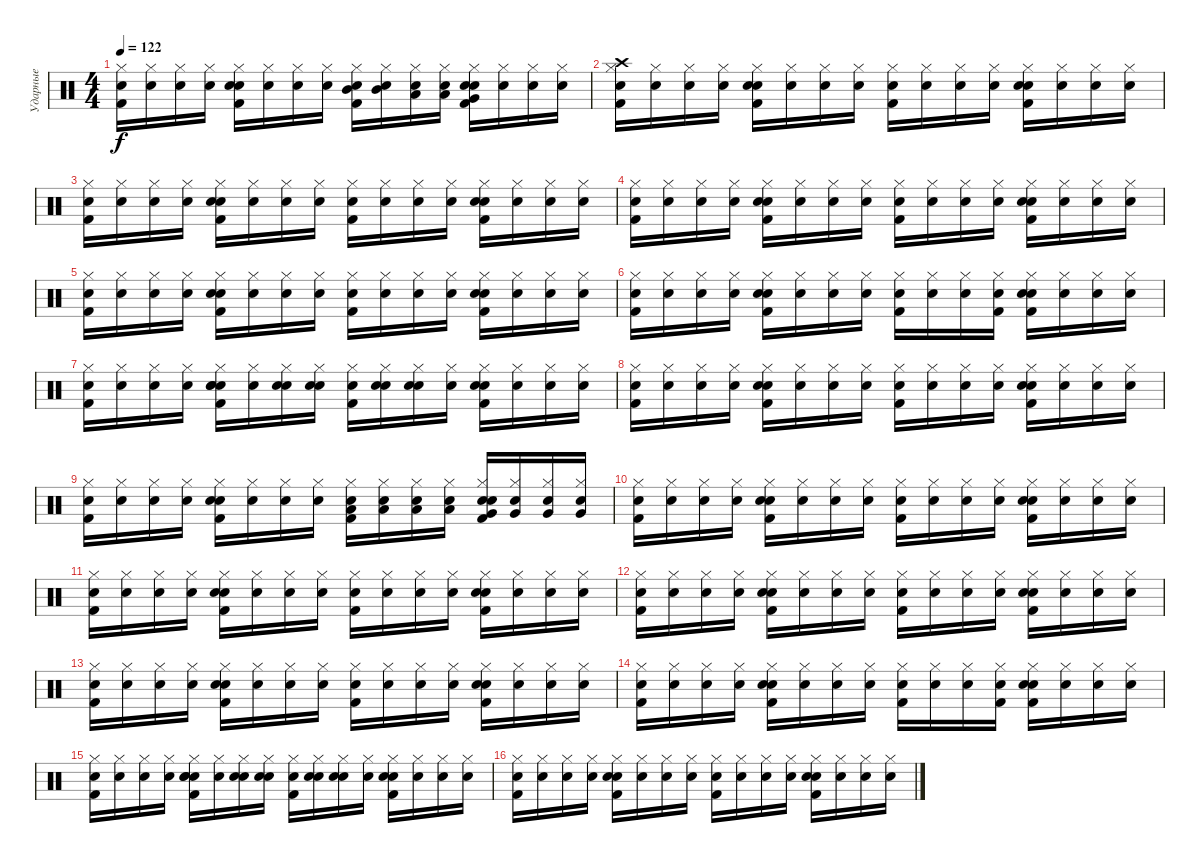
\track ("Ударные" "Ударные") {instrument percussion}
\staff {score}
\articulation defaults
\ts (4 4)
\tempo 122
\clef neutral
\ks c
("Snare (hit)" "Kick (hit) 2" "Hi-Hat (closed)").16{dy f} ("Snare (hit)" "Hi-Hat (closed)").16 ("Snare (hit)" "Hi-Hat (closed)").16 ("Snare (hit)" "Hi-Hat (closed)").16 ("Snare (hit)" "Kick (hit) 2" "Snare (hit) 2" "Hi-Hat (closed)").16 ("Snare (hit)" "Hi-Hat (closed)").16 ("Snare (hit)" "Hi-Hat (closed)").16 ("Snare (hit)" "Hi-Hat (closed)").16 ("Snare (hit)" "Mid Tom (hit)" "Kick (hit) 2" "Hi-Hat (closed)").16 ("Snare (hit)" "Mid Tom (hit)" "Hi-Hat (closed)").16 ("Snare (hit)" "Low Tom (hit)" "Hi-Hat (closed)").16 ("Snare (hit)" "Low Tom (hit)" "Hi-Hat (closed)").16 ("Snare (hit)" "Very Low Tom (hit)" "Kick (hit) 2" "Snare (hit) 2" "Hi-Hat (closed)").16 ("Snare (hit)" "Hi-Hat (closed)").16 ("Snare (hit)" "Hi-Hat (closed)").16 ("Snare (hit)" "Hi-Hat (closed)").16 |
("Snare (hit)" "Crash high (hit)" "Kick (hit) 2" "Hi-Hat (closed)").16 ("Snare (hit)" "Hi-Hat (closed)").16 ("Snare (hit)" "Hi-Hat (closed)").16 ("Snare (hit)" "Hi-Hat (closed)").16 ("Snare (hit)" "Kick (hit) 2" "Snare (hit) 2" "Hi-Hat (closed)").16 ("Snare (hit)" "Hi-Hat (closed)").16 ("Snare (hit)" "Hi-Hat (closed)").16 ("Snare (hit)" "Hi-Hat (closed)").16 ("Snare (hit)" "Kick (hit) 2" "Hi-Hat (closed)").16 ("Snare (hit)" "Hi-Hat (closed)").16 ("Snare (hit)" "Hi-Hat (closed)").16 ("Snare (hit)" "Hi-Hat (closed)").16 ("Snare (hit)" "Kick (hit) 2" "Snare (hit) 2" "Hi-Hat (closed)").16 ("Snare (hit)" "Hi-Hat (closed)").16 ("Snare (hit)" "Hi-Hat (closed)").16 ("Snare (hit)" "Hi-Hat (closed)").16 |
("Snare (hit)" "Kick (hit) 2" "Hi-Hat (closed)").16 ("Snare (hit)" "Hi-Hat (closed)").16 ("Snare (hit)" "Hi-Hat (closed)").16 ("Snare (hit)" "Hi-Hat (closed)").16 ("Snare (hit)" "Kick (hit) 2" "Snare (hit) 2" "Hi-Hat (closed)").16 ("Snare (hit)" "Hi-Hat (closed)").16 ("Snare (hit)" "Hi-Hat (closed)").16 ("Snare (hit)" "Hi-Hat (closed)").16 ("Snare (hit)" "Kick (hit) 2" "Hi-Hat (closed)").16 ("Snare (hit)" "Hi-Hat (closed)").16 ("Snare (hit)" "Hi-Hat (closed)").16 ("Snare (hit)" "Hi-Hat (closed)").16 ("Snare (hit)" "Kick (hit) 2" "Snare (hit) 2" "Hi-Hat (closed)").16 ("Snare (hit)" "Hi-Hat (closed)").16 ("Snare (hit)" "Hi-Hat (closed)").16 ("Snare (hit)" "Hi-Hat (closed)").16 |
("Snare (hit)" "Kick (hit) 2" "Hi-Hat (closed)").16 ("Snare (hit)" "Hi-Hat (closed)").16 ("Snare (hit)" "Hi-Hat (closed)").16 ("Snare (hit)" "Hi-Hat (closed)").16 ("Snare (hit)" "Kick (hit) 2" "Snare (hit) 2" "Hi-Hat (closed)").16 ("Snare (hit)" "Hi-Hat (closed)").16 ("Snare (hit)" "Hi-Hat (closed)").16 ("Snare (hit)" "Hi-Hat (closed)").16 ("Snare (hit)" "Kick (hit) 2" "Hi-Hat (closed)").16 ("Snare (hit)" "Hi-Hat (closed)").16 ("Snare (hit)" "Hi-Hat (closed)").16 ("Snare (hit)" "Hi-Hat (closed)").16 ("Snare (hit)" "Kick (hit) 2" "Snare (hit) 2" "Hi-Hat (closed)").16 ("Snare (hit)" "Hi-Hat (closed)").16 ("Snare (hit)" "Hi-Hat (closed)").16 ("Snare (hit)" "Hi-Hat (closed)").16 |
("Snare (hit)" "Kick (hit) 2" "Hi-Hat (closed)").16 ("Snare (hit)" "Hi-Hat (closed)").16 ("Snare (hit)" "Hi-Hat (closed)").16 ("Snare (hit)" "Hi-Hat (closed)").16 ("Snare (hit)" "Kick (hit) 2" "Snare (hit) 2" "Hi-Hat (closed)").16 ("Snare (hit)" "Hi-Hat (closed)").16 ("Snare (hit)" "Hi-Hat (closed)").16 ("Snare (hit)" "Hi-Hat (closed)").16 ("Snare (hit)" "Kick (hit) 2" "Hi-Hat (closed)").16 ("Snare (hit)" "Hi-Hat (closed)").16 ("Snare (hit)" "Hi-Hat (closed)").16 ("Snare (hit)" "Hi-Hat (closed)").16 ("Snare (hit)" "Kick (hit) 2" "Snare (hit) 2" "Hi-Hat (closed)").16 ("Snare (hit)" "Hi-Hat (closed)").16 ("Snare (hit)" "Hi-Hat (closed)").16 ("Snare (hit)" "Hi-Hat (closed)").16 |
("Snare (hit)" "Kick (hit) 2" "Hi-Hat (closed)").16 ("Snare (hit)" "Hi-Hat (closed)").16 ("Snare (hit)" "Hi-Hat (closed)").16 ("Snare (hit)" "Hi-Hat (closed)").16 ("Snare (hit)" "Kick (hit) 2" "Snare (hit) 2" "Hi-Hat (closed)").16 ("Snare (hit)" "Hi-Hat (closed)").16 ("Snare (hit)" "Hi-Hat (closed)").16 ("Snare (hit)" "Hi-Hat (closed)").16 ("Snare (hit)" "Kick (hit) 2" "Hi-Hat (closed)").16 ("Snare (hit)" "Hi-Hat (closed)").16 ("Snare (hit)" "Hi-Hat (closed)").16 ("Snare (hit)" "Kick (hit) 2" "Hi-Hat (closed)").16 ("Snare (hit)" "Kick (hit) 2" "Snare (hit) 2" "Hi-Hat (closed)").16 ("Snare (hit)" "Hi-Hat (closed)").16 ("Snare (hit)" "Hi-Hat (closed)").16 ("Snare (hit)" "Hi-Hat (closed)").16 |
("Snare (hit)" "Kick (hit) 2" "Hi-Hat (closed)").16 ("Snare (hit)" "Hi-Hat (closed)").16 ("Snare (hit)" "Hi-Hat (closed)").16 ("Snare (hit)" "Hi-Hat (closed)").16 ("Snare (hit)" "Hand Clap (hit)" "Kick (hit) 2" "Snare (hit) 2" "Hi-Hat (closed)").16 ("Snare (hit)" "Hi-Hat (closed)").16 ("Snare (hit)" "Hand Clap (hit)" "Hi-Hat (closed)").16 ("Snare (hit)" "Hand Clap (hit)" "Hi-Hat (closed)").16 ("Snare (hit)" "Kick (hit) 2" "Hi-Hat (closed)").16 ("Snare (hit)" "Hand Clap (hit)" "Hi-Hat (closed)").16 ("Snare (hit)" "Hand Clap (hit)" "Hi-Hat (closed)").16 ("Snare (hit)" "Hi-Hat (closed)").16 ("Snare (hit)" "Kick (hit) 2" "Snare (hit) 2" "Hi-Hat (closed)").16 ("Snare (hit)" "Hi-Hat (closed)").16 ("Snare (hit)" "Hi-Hat (closed)").16 ("Snare (hit)" "Hi-Hat (closed)").16 |
("Snare (hit)" "Kick (hit) 2" "Hi-Hat (closed)").16 ("Snare (hit)" "Hi-Hat (closed)").16 ("Snare (hit)" "Hi-Hat (closed)").16 ("Snare (hit)" "Hi-Hat (closed)").16 ("Snare (hit)" "Kick (hit) 2" "Snare (hit) 2" "Hi-Hat (closed)").16 ("Snare (hit)" "Hi-Hat (closed)").16 ("Snare (hit)" "Hi-Hat (closed)").16 ("Snare (hit)" "Hi-Hat (closed)").16 ("Snare (hit)" "Kick (hit) 2" "Hi-Hat (closed)").16 ("Snare (hit)" "Hi-Hat (closed)").16 ("Snare (hit)" "Hi-Hat (closed)").16 ("Snare (hit)" "Hi-Hat (closed)").16 ("Snare (hit)" "Kick (hit) 2" "Snare (hit) 2" "Hi-Hat (closed)").16 ("Snare (hit)" "Hi-Hat (closed)").16 ("Snare (hit)" "Hi-Hat (closed)").16 ("Snare (hit)" "Hi-Hat (closed)").16 |
("Snare (hit)" "Kick (hit) 2" "Hi-Hat (closed)").16 ("Snare (hit)" "Hi-Hat (closed)").16 ("Snare (hit)" "Hi-Hat (closed)").16 ("Snare (hit)" "Hi-Hat (closed)").16 ("Snare (hit)" "Kick (hit) 2" "Snare (hit) 2" "Hi-Hat (closed)").16 ("Snare (hit)" "Hi-Hat (closed)").16 ("Snare (hit)" "Hi-Hat (closed)").16 ("Snare (hit)" "Hi-Hat (closed)").16 ("Snare (hit)" "Low Tom (hit)" "Kick (hit) 2" "Hi-Hat (closed)").16 ("Snare (hit)" "Low Tom (hit)" "Hi-Hat (closed)").16 ("Snare (hit)" "Low Tom (hit)" "Hi-Hat (closed)").16 ("Snare (hit)" "Low Tom (hit)" "Hi-Hat (closed)").16 ("Snare (hit)" "Very Low Tom (hit)" "Kick (hit) 2" "Snare (hit) 2" "Hi-Hat (closed)").16 ("Snare (hit)" "Very Low Tom (hit)" "Hi-Hat (closed)").16 ("Snare (hit)" "Very Low Tom (hit)" "Hi-Hat (closed)").16 ("Snare (hit)" "Very Low Tom (hit)" "Hi-Hat (closed)").16 |
("Snare (hit)" "Kick (hit) 2" "Hi-Hat (closed)").16 ("Snare (hit)" "Hi-Hat (closed)").16 ("Snare (hit)" "Hi-Hat (closed)").16 ("Snare (hit)" "Hi-Hat (closed)").16 ("Snare (hit)" "Kick (hit) 2" "Snare (hit) 2" "Hi-Hat (closed)").16 ("Snare (hit)" "Hi-Hat (closed)").16 ("Snare (hit)" "Hi-Hat (closed)").16 ("Snare (hit)" "Hi-Hat (closed)").16 ("Snare (hit)" "Kick (hit) 2" "Hi-Hat (closed)").16 ("Snare (hit)" "Hi-Hat (closed)").16 ("Snare (hit)" "Hi-Hat (closed)").16 ("Snare (hit)" "Hi-Hat (closed)").16 ("Snare (hit)" "Kick (hit) 2" "Snare (hit) 2" "Hi-Hat (closed)").16 ("Snare (hit)" "Hi-Hat (closed)").16 ("Snare (hit)" "Hi-Hat (closed)").16 ("Snare (hit)" "Hi-Hat (closed)").16 |
("Snare (hit)" "Kick (hit) 2" "Hi-Hat (closed)").16 ("Snare (hit)" "Hi-Hat (closed)").16 ("Snare (hit)" "Hi-Hat (closed)").16 ("Snare (hit)" "Hi-Hat (closed)").16 ("Snare (hit)" "Kick (hit) 2" "Snare (hit) 2" "Hi-Hat (closed)").16 ("Snare (hit)" "Hi-Hat (closed)").16 ("Snare (hit)" "Hi-Hat (closed)").16 ("Snare (hit)" "Hi-Hat (closed)").16 ("Snare (hit)" "Kick (hit) 2" "Hi-Hat (closed)").16 ("Snare (hit)" "Hi-Hat (closed)").16 ("Snare (hit)" "Hi-Hat (closed)").16 ("Snare (hit)" "Hi-Hat (closed)").16 ("Snare (hit)" "Kick (hit) 2" "Snare (hit) 2" "Hi-Hat (closed)").16 ("Snare (hit)" "Hi-Hat (closed)").16 ("Snare (hit)" "Hi-Hat (closed)").16 ("Snare (hit)" "Hi-Hat (closed)").16 |
("Snare (hit)" "Kick (hit) 2" "Hi-Hat (closed)").16 ("Snare (hit)" "Hi-Hat (closed)").16 ("Snare (hit)" "Hi-Hat (closed)").16 ("Snare (hit)" "Hi-Hat (closed)").16 ("Snare (hit)" "Kick (hit) 2" "Snare (hit) 2" "Hi-Hat (closed)").16 ("Snare (hit)" "Hi-Hat (closed)").16 ("Snare (hit)" "Hi-Hat (closed)").16 ("Snare (hit)" "Hi-Hat (closed)").16 ("Snare (hit)" "Kick (hit) 2" "Hi-Hat (closed)").16 ("Snare (hit)" "Hi-Hat (closed)").16 ("Snare (hit)" "Hi-Hat (closed)").16 ("Snare (hit)" "Hi-Hat (closed)").16 ("Snare (hit)" "Kick (hit) 2" "Snare (hit) 2" "Hi-Hat (closed)").16 ("Snare (hit)" "Hi-Hat (closed)").16 ("Snare (hit)" "Hi-Hat (closed)").16 ("Snare (hit)" "Hi-Hat (closed)").16 |
("Snare (hit)" "Kick (hit) 2" "Hi-Hat (closed)").16 ("Snare (hit)" "Hi-Hat (closed)").16 ("Snare (hit)" "Hi-Hat (closed)").16 ("Snare (hit)" "Hi-Hat (closed)").16 ("Snare (hit)" "Kick (hit) 2" "Snare (hit) 2" "Hi-Hat (closed)").16 ("Snare (hit)" "Hi-Hat (closed)").16 ("Snare (hit)" "Hi-Hat (closed)").16 ("Snare (hit)" "Hi-Hat (closed)").16 ("Snare (hit)" "Kick (hit) 2" "Hi-Hat (closed)").16 ("Snare (hit)" "Hi-Hat (closed)").16 ("Snare (hit)" "Hi-Hat (closed)").16 ("Snare (hit)" "Hi-Hat (closed)").16 ("Snare (hit)" "Kick (hit) 2" "Snare (hit) 2" "Hi-Hat (closed)").16 ("Snare (hit)" "Hi-Hat (closed)").16 ("Snare (hit)" "Hi-Hat (closed)").16 ("Snare (hit)" "Hi-Hat (closed)").16 |
("Snare (hit)" "Kick (hit) 2" "Hi-Hat (closed)").16 ("Snare (hit)" "Hi-Hat (closed)").16 ("Snare (hit)" "Hi-Hat (closed)").16 ("Snare (hit)" "Hi-Hat (closed)").16 ("Snare (hit)" "Kick (hit) 2" "Snare (hit) 2" "Hi-Hat (closed)").16 ("Snare (hit)" "Hi-Hat (closed)").16 ("Snare (hit)" "Hi-Hat (closed)").16 ("Snare (hit)" "Hi-Hat (closed)").16 ("Snare (hit)" "Kick (hit) 2" "Hi-Hat (closed)").16 ("Snare (hit)" "Hi-Hat (closed)").16 ("Snare (hit)" "Hi-Hat (closed)").16 ("Snare (hit)" "Kick (hit) 2" "Hi-Hat (closed)").16 ("Snare (hit)" "Kick (hit) 2" "Snare (hit) 2" "Hi-Hat (closed)").16 ("Snare (hit)" "Hi-Hat (closed)").16 ("Snare (hit)" "Hi-Hat (closed)").16 ("Snare (hit)" "Hi-Hat (closed)").16 |
("Snare (hit)" "Kick (hit) 2" "Hi-Hat (closed)").16 ("Snare (hit)" "Hi-Hat (closed)").16 ("Snare (hit)" "Hi-Hat (closed)").16 ("Snare (hit)" "Hi-Hat (closed)").16 ("Snare (hit)" "Hand Clap (hit)" "Kick (hit) 2" "Snare (hit) 2" "Hi-Hat (closed)").16 ("Snare (hit)" "Hi-Hat (closed)").16 ("Snare (hit)" "Hand Clap (hit)" "Hi-Hat (closed)").16 ("Snare (hit)" "Hand Clap (hit)" "Hi-Hat (closed)").16 ("Snare (hit)" "Kick (hit) 2" "Hi-Hat (closed)").16 ("Snare (hit)" "Hand Clap (hit)" "Hi-Hat (closed)").16 ("Snare (hit)" "Hand Clap (hit)" "Hi-Hat (closed)").16 ("Snare (hit)" "Hi-Hat (closed)").16 ("Snare (hit)" "Kick (hit) 2" "Snare (hit) 2" "Hi-Hat (closed)").16 ("Snare (hit)" "Hi-Hat (closed)").16 ("Snare (hit)" "Hi-Hat (closed)").16 ("Snare (hit)" "Hi-Hat (closed)").16 |
("Snare (hit)" "Kick (hit) 2" "Hi-Hat (closed)").16 ("Snare (hit)" "Hi-Hat (closed)").16 ("Snare (hit)" "Hi-Hat (closed)").16 ("Snare (hit)" "Hi-Hat (closed)").16 ("Snare (hit)" "Kick (hit) 2" "Snare (hit) 2" "Hi-Hat (closed)").16 ("Snare (hit)" "Hi-Hat (closed)").16 ("Snare (hit)" "Hi-Hat (closed)").16 ("Snare (hit)" "Hi-Hat (closed)").16 ("Snare (hit)" "Kick (hit) 2" "Hi-Hat (closed)").16 ("Snare (hit)" "Hi-Hat (closed)").16 ("Snare (hit)" "Hi-Hat (closed)").16 ("Snare (hit)" "Hi-Hat (closed)").16 ("Snare (hit)" "Kick (hit) 2" "Snare (hit) 2" "Hi-Hat (closed)").16 ("Snare (hit)" "Hi-Hat (closed)").16 ("Snare (hit)" "Hi-Hat (closed)").16 ("Snare (hit)" "Hi-Hat (closed)").16
